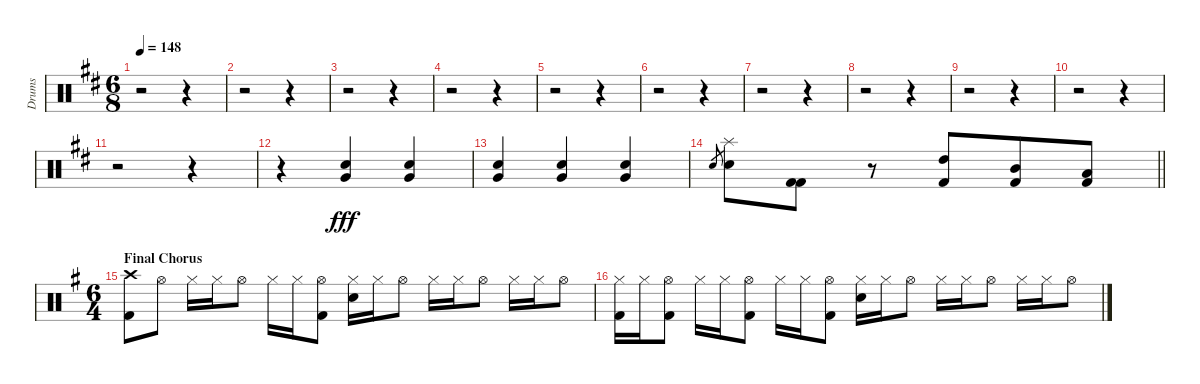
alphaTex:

\track ("Drums" "Drums") {instrument percussion}
\staff {score}
\articulation defaults
\ts (6 8)
\tempo 148
\clef neutral
\ks d
r.2{dy fff} r.4 |
r.2 r.4 |
r.2 r.4 |
r.2 r.4 |
r.2 r.4 |
r.2 r.4 |
r.2 r.4 |
r.2 r.4 |
r.2 r.4 |
r.2 r.4 |
r.2 r.4 |
r.4{volume 4} ("Very Low Tom (hit)" "Electric Snare (hit)").4{volume 16} ("Very Low Tom (hit)" "Electric Snare (hit)").4 |
("Very Low Tom (hit)" "Electric Snare (hit)").4 ("Very Low Tom (hit)" "Electric Snare (hit)").4 ("Very Low Tom (hit)" "Electric Snare (hit)").4 |
\barLineRight lightlight "Electric Snare (hit)".8{gr}
("Splash (hit)" "Electric Snare (hit)").8 ("Kick (hit) 2" "Kick (hit) 2").8 r.8 ("High Tom (hit)" "Kick (hit) 2").8 ("Mid Tom (hit)" "Kick (hit) 2").8 ("Low Tom (hit)" "Kick (hit) 2").8 |
\ts (6 4)
\section ("" "Final Chorus ")
\ks g
("Crash high (hit)" "Kick (hit) 2").8 "Hi-Hat (open)".8 "Hi-Hat (closed)".16 "Hi-Hat (closed)".16 "Hi-Hat (open)".8 "Hi-Hat (closed)".16 "Hi-Hat (closed)".16 ("Hi-Hat (open)" "Kick (hit) 2").8 ("Hi-Hat (closed)" "Electric Snare (hit)").16 "Hi-Hat (closed)".16 "Hi-Hat (open)".8 "Hi-Hat (closed)".16 "Hi-Hat (closed)".16 "Hi-Hat (open)".8 "Hi-Hat (closed)".16 "Hi-Hat (closed)".16 "Hi-Hat (open)".8 |
("Hi-Hat (closed)" "Kick (hit) 2").16 "Hi-Hat (closed)".16 ("Hi-Hat (open)" "Kick (hit) 2").8 "Hi-Hat (closed)".16 "Hi-Hat (closed)".16 ("Hi-Hat (open)" "Kick (hit) 2").8 "Hi-Hat (closed)".16 "Hi-Hat (closed)".16 ("Hi-Hat (open)" "Kick (hit) 2").8 ("Hi-Hat (closed)" "Electric Snare (hit)").16 "Hi-Hat (closed)".16 "Hi-Hat (open)".8 "Hi-Hat (closed)".16 "Hi-Hat (closed)".16 "Hi-Hat (open)".8 "Hi-Hat (closed)".16 "Hi-Hat (closed)".16 "Hi-Hat (open)".8
